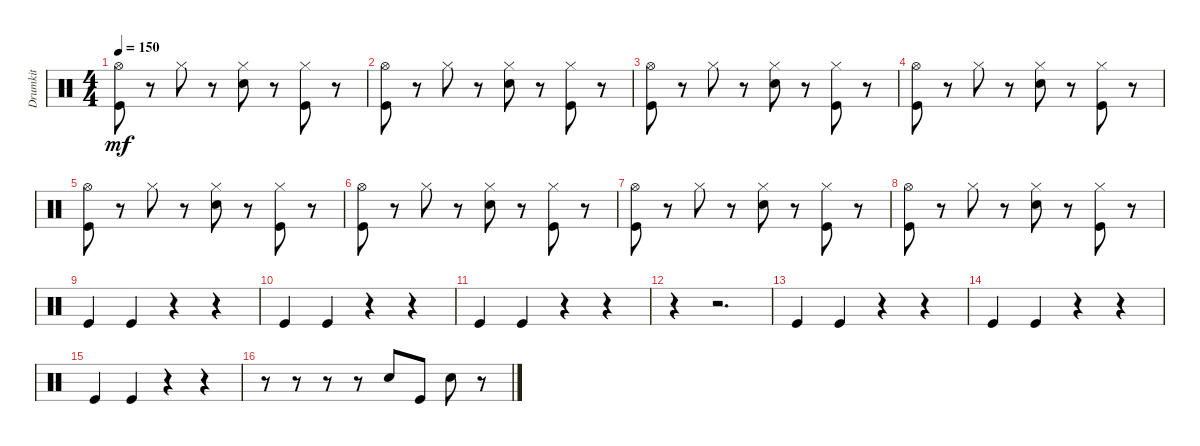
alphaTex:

\track ("Drumkit" "Drumkit") {instrument percussion}
\staff {score}
\articulation defaults
\ts (4 4)
\tempo 150
\clef neutral
\ks c
("Kick (hit)" "Hi-Hat (open)").8{dy mf} r.8 "Hi-Hat (closed)".8 r.8 ("Snare (hit) 2" "Hi-Hat (closed)").8 r.8 ("Kick (hit)" "Hi-Hat (closed)").8 r.8 |
("Kick (hit)" "Hi-Hat (open)").8 r.8 "Hi-Hat (closed)".8 r.8 ("Snare (hit) 2" "Hi-Hat (closed)").8 r.8 ("Kick (hit)" "Hi-Hat (closed)").8 r.8 |
("Kick (hit)" "Hi-Hat (open)").8 r.8 "Hi-Hat (closed)".8 r.8 ("Snare (hit) 2" "Hi-Hat (closed)").8 r.8 ("Kick (hit)" "Hi-Hat (closed)").8 r.8 |
("Kick (hit)" "Hi-Hat (open)").8 r.8 "Hi-Hat (closed)".8 r.8 ("Snare (hit) 2" "Hi-Hat (closed)").8 r.8 ("Kick (hit)" "Hi-Hat (closed)").8 r.8 |
("Kick (hit)" "Hi-Hat (open)").8 r.8 "Hi-Hat (closed)".8 r.8 ("Snare (hit) 2" "Hi-Hat (closed)").8 r.8 ("Kick (hit)" "Hi-Hat (closed)").8 r.8 |
("Kick (hit)" "Hi-Hat (open)").8 r.8 "Hi-Hat (closed)".8 r.8 ("Snare (hit) 2" "Hi-Hat (closed)").8 r.8 ("Kick (hit)" "Hi-Hat (closed)").8 r.8 |
("Kick (hit)" "Hi-Hat (open)").8 r.8 "Hi-Hat (closed)".8 r.8 ("Snare (hit) 2" "Hi-Hat (closed)").8 r.8 ("Kick (hit)" "Hi-Hat (closed)").8 r.8 |
("Kick (hit)" "Hi-Hat (open)").8 r.8 "Hi-Hat (closed)".8 r.8 ("Snare (hit) 2" "Hi-Hat (closed)").8 r.8 ("Kick (hit)" "Hi-Hat (closed)").8 r.8 |
"Kick (hit)".4 "Kick (hit)".4 r.4 r.4 |
"Kick (hit)".4 "Kick (hit)".4 r.4 r.4 |
"Kick (hit)".4 "Kick (hit)".4 r.4 r.4 |
r.4 r.2{d} |
"Kick (hit)".4 "Kick (hit)".4 r.4 r.4 |
"Kick (hit)".4 "Kick (hit)".4 r.4 r.4 |
"Kick (hit)".4 "Kick (hit)".4 r.4 r.4 |
r.8 r.8 r.8 r.8 "Snare (hit) 2".8 "Kick (hit)".8 "Snare (hit) 2".8 r.8
